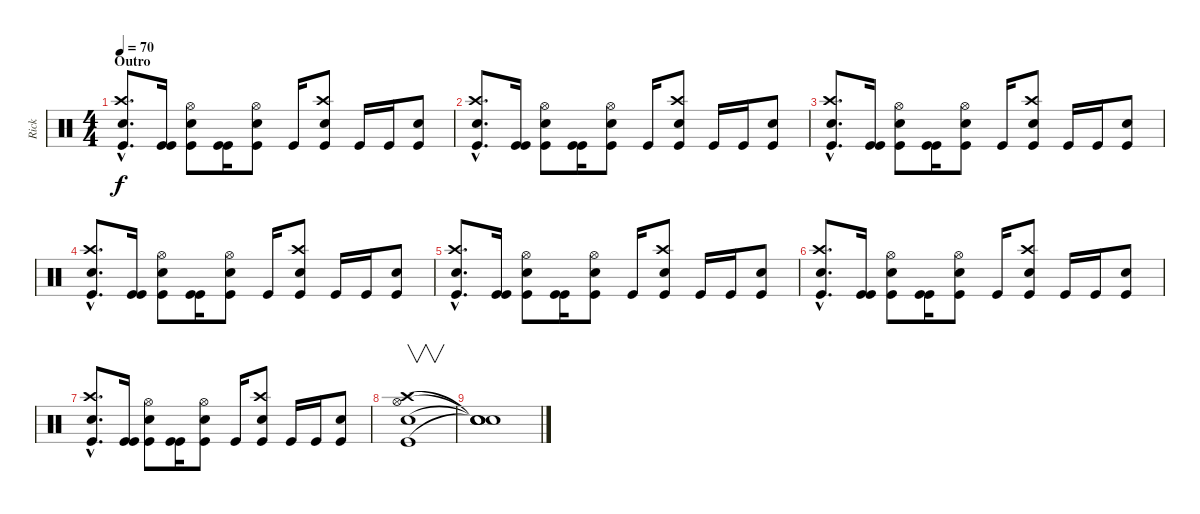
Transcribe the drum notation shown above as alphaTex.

\track ("Rick" "Rick") {instrument percussion}
\staff {score}
\articulation defaults
\ts (4 4)
\section ("" "Outro")
\tempo 70
\clef neutral
\ks c
("Kick (hit)"{hac} "Crash high (hit)"{hac} "Electric Snare (hit)"{hac}).8{d dy f} ("Kick (hit)" "Kick (hit)").16 ("Kick (hit)" "Hi-Hat (open)" "Electric Snare (hit)").8 ("Kick (hit)" "Kick (hit)").16 ("Kick (hit)" "Hi-Hat (open)" "Electric Snare (hit)").8 "Kick (hit)".16 ("Kick (hit)" "Crash high (hit)" "Electric Snare (hit)").8 "Kick (hit)".16 "Kick (hit)".16 ("Kick (hit)" "Electric Snare (hit)").8 |
("Kick (hit)"{hac} "Crash high (hit)"{hac} "Electric Snare (hit)"{hac}).8{d} ("Kick (hit)" "Kick (hit)").16 ("Kick (hit)" "Hi-Hat (open)" "Electric Snare (hit)").8 ("Kick (hit)" "Kick (hit)").16 ("Kick (hit)" "Hi-Hat (open)" "Electric Snare (hit)").8 "Kick (hit)".16 ("Kick (hit)" "Crash high (hit)" "Electric Snare (hit)").8 "Kick (hit)".16 "Kick (hit)".16 ("Kick (hit)" "Electric Snare (hit)").8 |
("Kick (hit)"{hac} "Crash high (hit)"{hac} "Electric Snare (hit)"{hac}).8{d} ("Kick (hit)" "Kick (hit)").16 ("Kick (hit)" "Hi-Hat (open)" "Electric Snare (hit)").8 ("Kick (hit)" "Kick (hit)").16 ("Kick (hit)" "Hi-Hat (open)" "Electric Snare (hit)").8 "Kick (hit)".16 ("Kick (hit)" "Crash high (hit)" "Electric Snare (hit)").8 "Kick (hit)".16 "Kick (hit)".16 ("Kick (hit)" "Electric Snare (hit)").8 |
("Kick (hit)"{hac} "Crash high (hit)"{hac} "Electric Snare (hit)"{hac}).8{d} ("Kick (hit)" "Kick (hit)").16 ("Kick (hit)" "Hi-Hat (open)" "Electric Snare (hit)").8 ("Kick (hit)" "Kick (hit)").16 ("Kick (hit)" "Hi-Hat (open)" "Electric Snare (hit)").8 "Kick (hit)".16 ("Kick (hit)" "Crash high (hit)" "Electric Snare (hit)").8 "Kick (hit)".16 "Kick (hit)".16 ("Kick (hit)" "Electric Snare (hit)").8 |
("Kick (hit)"{hac} "Crash high (hit)"{hac} "Electric Snare (hit)"{hac}).8{d} ("Kick (hit)" "Kick (hit)").16 ("Kick (hit)" "Hi-Hat (open)" "Electric Snare (hit)").8 ("Kick (hit)" "Kick (hit)").16 ("Kick (hit)" "Hi-Hat (open)" "Electric Snare (hit)").8 "Kick (hit)".16 ("Kick (hit)" "Crash high (hit)" "Electric Snare (hit)").8 "Kick (hit)".16 "Kick (hit)".16 ("Kick (hit)" "Electric Snare (hit)").8 |
("Kick (hit)"{hac} "Crash high (hit)"{hac} "Electric Snare (hit)"{hac}).8{d} ("Kick (hit)" "Kick (hit)").16 ("Kick (hit)" "Hi-Hat (open)" "Electric Snare (hit)").8 ("Kick (hit)" "Kick (hit)").16 ("Kick (hit)" "Hi-Hat (open)" "Electric Snare (hit)").8 "Kick (hit)".16 ("Kick (hit)" "Crash high (hit)" "Electric Snare (hit)").8 "Kick (hit)".16 "Kick (hit)".16 ("Kick (hit)" "Electric Snare (hit)").8 |
("Kick (hit)"{hac} "Crash high (hit)"{hac} "Electric Snare (hit)"{hac}).8{d} ("Kick (hit)" "Kick (hit)").16 ("Kick (hit)" "Hi-Hat (open)" "Electric Snare (hit)").8 ("Kick (hit)" "Kick (hit)").16 ("Kick (hit)" "Hi-Hat (open)" "Electric Snare (hit)").8 "Kick (hit)".16 ("Kick (hit)" "Crash high (hit)" "Electric Snare (hit)").8 "Kick (hit)".16 "Kick (hit)".16 ("Kick (hit)" "Electric Snare (hit)").8 |
("Kick (hit)" "Electric Snare (hit)" "Hi-Hat (open)" "Crash high (hit)").1{v volume 0} |
("Snare (hit)"{t} "Snare (hit)"{t} "Snare (hit)"{t} "Snare (hit)"{t}).1
